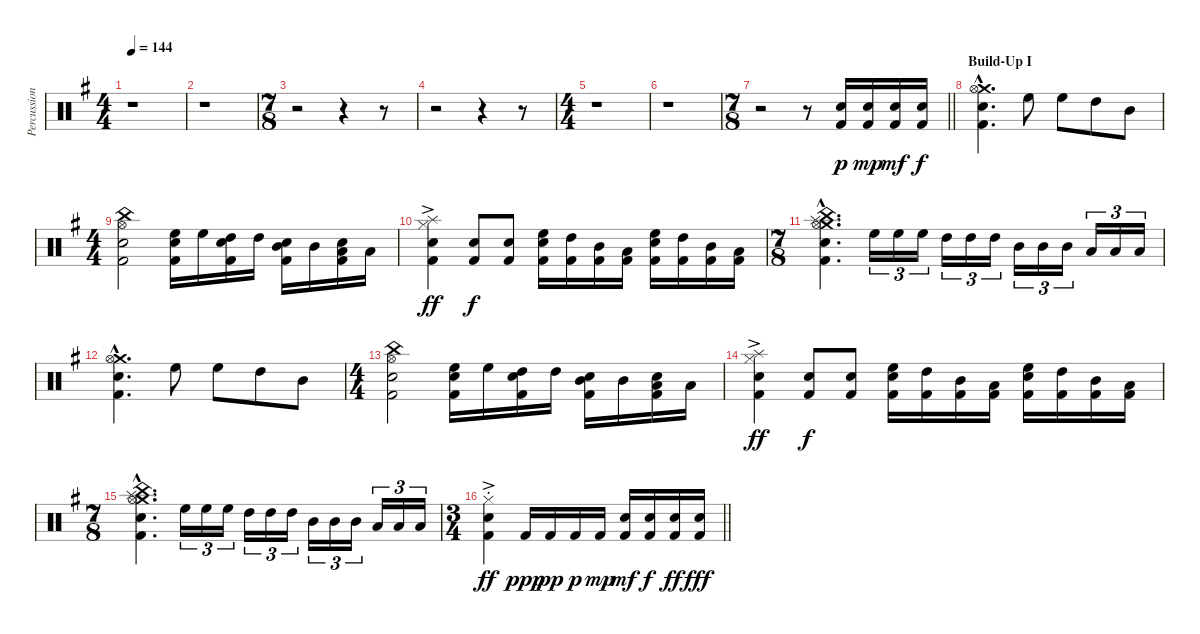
\track ("Percussion" "Percussion") {instrument percussion}
\staff {score}
\articulation defaults
\ts (4 4)
\tempo 144
\clef neutral
\ks eminor
r.1{dy f} |
r.1 |
\ts (7 8)
r.2 r.4 r.8 |
r.2 r.4 r.8 |
\ts (4 4)
r.1 |
r.1 |
\ts (7 8)
\barLineRight lightlight
r.2 r.8 ("Snare (hit) 2" "Kick (hit) 2").16{dy p} ("Snare (hit) 2" "Kick (hit) 2").16{dy mp} ("Snare (hit) 2" "Kick (hit) 2").16{dy mf} ("Snare (hit) 2" "Kick (hit) 2").16{dy f} |
\section ("" "Build-Up I")
("Crash medium (hit)"{hac} "Hi-Hat (open)"{hac} "Snare (hit) 2"{hac} "Kick (hit) 2"{hac}).4{d} "High Floor Tom (hit)".8 "High Floor Tom (hit)".8 "High Tom (hit)".8 "Mid Tom (hit)".8 |
\ts (4 4)
("China (hit)" "Hi-Hat (open)" "Snare (hit) 2" "Kick (hit) 2").2 ("High Floor Tom (hit)" "Snare (hit) 2" "Kick (hit) 2").16 "High Floor Tom (hit)".16 ("High Tom (hit)" "Snare (hit) 2" "Kick (hit) 2").16 "High Tom (hit)".16 ("Mid Tom (hit)" "Snare (hit) 2" "Kick (hit) 2").16 "Mid Tom (hit)".16 ("Low Tom (hit)" "Snare (hit) 2" "Kick (hit) 2").16 "Low Tom (hit)".16 |
("Splash (hit)"{ac} "Hi-Hat (closed)"{ac} "Snare (hit) 2"{ac} "Kick (hit) 2"{ac}).4{dy ff} ("Snare (hit) 2" "Kick (hit) 2").8{dy f} ("Snare (hit) 2" "Kick (hit) 2").8 ("High Floor Tom (hit)" "Snare (hit) 2" "Kick (hit) 2").16 ("High Tom (hit)" "Kick (hit) 2").16 ("Mid Tom (hit)" "Kick (hit) 2").16 ("Low Tom (hit)" "Kick (hit) 2").16 ("High Floor Tom (hit)" "Snare (hit) 2" "Kick (hit) 2").16 ("High Tom (hit)" "Kick (hit) 2").16 ("Mid Tom (hit)" "Kick (hit) 2").16 ("Low Tom (hit)" "Kick (hit) 2").16 |
\ts (7 8)
("Crash medium (hit)"{hac} "China (hit)"{hac} "Hi-Hat (open)"{hac} "Splash (hit)"{hac} "Snare (hit) 2"{hac} "Kick (hit) 2"{hac}).4{d} "High Floor Tom (hit)".16{tu (3 2)} "High Floor Tom (hit)".16{tu (3 2)} "High Floor Tom (hit)".16{tu (3 2)} "High Tom (hit)".16{tu (3 2)} "High Tom (hit)".16{tu (3 2)} "High Tom (hit)".16{tu (3 2)} "Mid Tom (hit)".16{tu (3 2)} "Mid Tom (hit)".16{tu (3 2)} "Mid Tom (hit)".16{tu (3 2)} "Low Tom (hit)".16{tu (3 2)} "Low Tom (hit)".16{tu (3 2)} "Low Tom (hit)".16{tu (3 2)} |
("Crash medium (hit)"{hac} "Hi-Hat (open)"{hac} "Snare (hit) 2"{hac} "Kick (hit) 2"{hac}).4{d} "High Floor Tom (hit)".8 "High Floor Tom (hit)".8 "High Tom (hit)".8 "Mid Tom (hit)".8 |
\ts (4 4)
("China (hit)" "Hi-Hat (open)" "Snare (hit) 2" "Kick (hit) 2").2 ("High Floor Tom (hit)" "Snare (hit) 2" "Kick (hit) 2").16 "High Floor Tom (hit)".16 ("High Tom (hit)" "Snare (hit) 2" "Kick (hit) 2").16 "High Tom (hit)".16 ("Mid Tom (hit)" "Snare (hit) 2" "Kick (hit) 2").16 "Mid Tom (hit)".16 ("Low Tom (hit)" "Snare (hit) 2" "Kick (hit) 2").16 "Low Tom (hit)".16 |
("Splash (hit)"{ac} "Hi-Hat (closed)"{ac} "Snare (hit) 2"{ac} "Kick (hit) 2"{ac}).4{dy ff} ("Snare (hit) 2" "Kick (hit) 2").8{dy f} ("Snare (hit) 2" "Kick (hit) 2").8 ("High Floor Tom (hit)" "Snare (hit) 2" "Kick (hit) 2").16 ("High Tom (hit)" "Kick (hit) 2").16 ("Mid Tom (hit)" "Kick (hit) 2").16 ("Low Tom (hit)" "Kick (hit) 2").16 ("High Floor Tom (hit)" "Snare (hit) 2" "Kick (hit) 2").16 ("High Tom (hit)" "Kick (hit) 2").16 ("Mid Tom (hit)" "Kick (hit) 2").16 ("Low Tom (hit)" "Kick (hit) 2").16 |
\ts (7 8)
("Crash medium (hit)"{hac} "China (hit)"{hac} "Hi-Hat (open)"{hac} "Splash (hit)"{hac} "Snare (hit) 2"{hac} "Kick (hit) 2"{hac}).4{d} "High Floor Tom (hit)".16{tu (3 2)} "High Floor Tom (hit)".16{tu (3 2)} "High Floor Tom (hit)".16{tu (3 2)} "High Tom (hit)".16{tu (3 2)} "High Tom (hit)".16{tu (3 2)} "High Tom (hit)".16{tu (3 2)} "Mid Tom (hit)".16{tu (3 2)} "Mid Tom (hit)".16{tu (3 2)} "Mid Tom (hit)".16{tu (3 2)} "Low Tom (hit)".16{tu (3 2)} "Low Tom (hit)".16{tu (3 2)} "Low Tom (hit)".16{tu (3 2)} |
\ts (3 4)
\barLineRight lightlight
("Hi-Hat (closed)"{ac st} "Snare (hit) 2"{ac st} "Kick (hit) 2"{ac st}).4{dy ff} "Kick (hit) 2".16{dy ppp} "Kick (hit) 2".16{dy pp} "Kick (hit) 2".16{dy p} "Kick (hit) 2".16{dy mp} ("Snare (hit) 2" "Kick (hit) 2").16{dy mf} ("Snare (hit) 2" "Kick (hit) 2").16{dy f} ("Snare (hit) 2" "Kick (hit) 2").16{dy ff} ("Snare (hit) 2" "Kick (hit) 2").16{dy fff}
